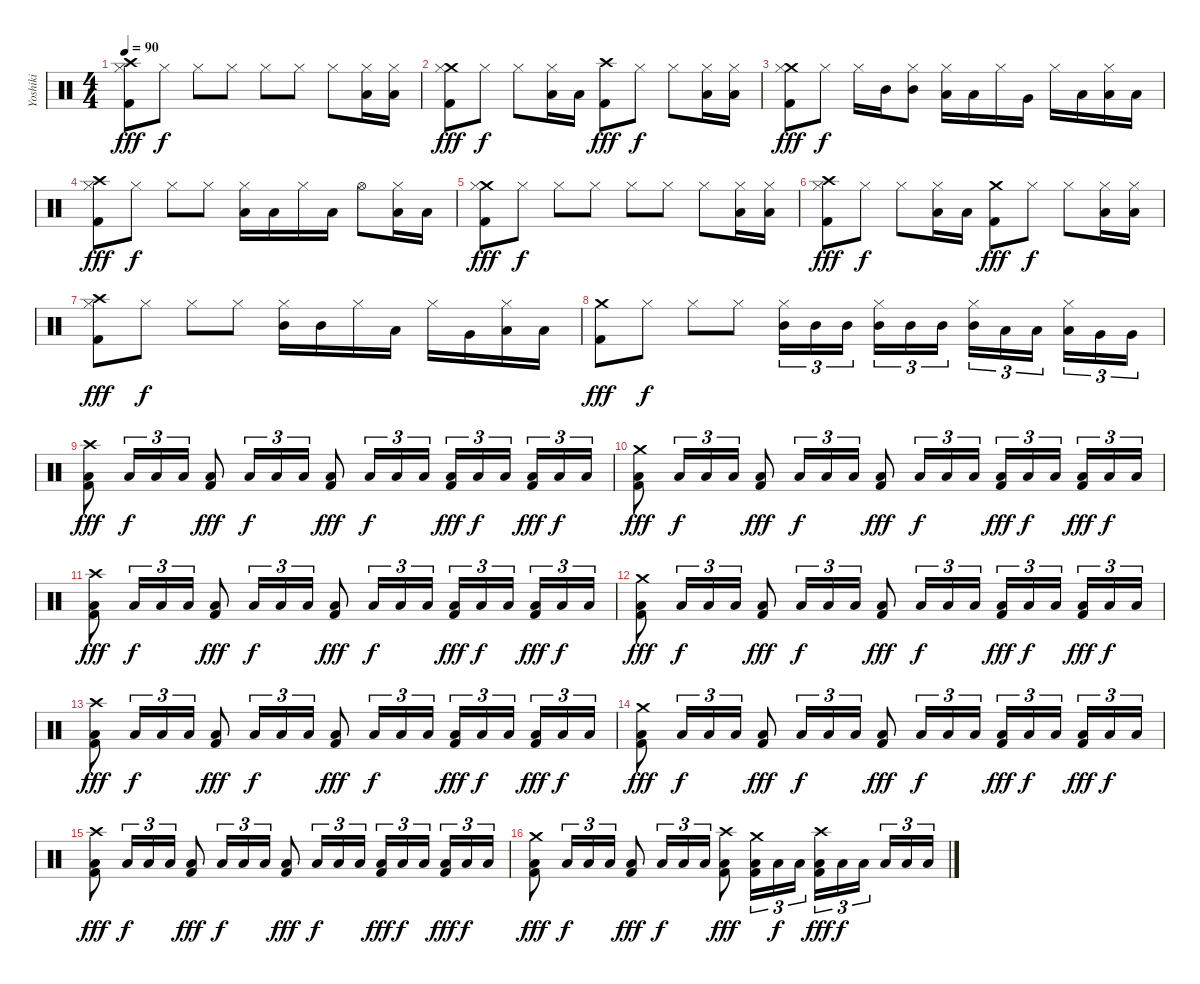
\track ("Yoshiki" "Yoshiki") {instrument percussion}
\staff {score}
\articulation defaults
\ts (4 4)
\tempo 90
\clef neutral
\ks c
("Crash high (hit)" "Hi-Hat (closed)" "Kick (hit) 2").8{dy fff} "Hi-Hat (closed)".8{dy f} "Hi-Hat (closed)".8 "Hi-Hat (closed)".8 "Hi-Hat (closed)".8 "Hi-Hat (closed)".8 "Hi-Hat (closed)".8 ("Hi-Hat (closed)" "Low Floor Tom (hit)").16 ("Hi-Hat (closed)" "Low Floor Tom (hit)").16 |
("Crash medium (hit)" "Hi-Hat (closed)" "Kick (hit) 2").8{dy fff} "Hi-Hat (closed)".8{dy f} "Hi-Hat (closed)".8 ("Hi-Hat (closed)" "Low Floor Tom (hit)").16 "Low Floor Tom (hit)".16 ("Crash high (hit)" "Kick (hit) 2").8{dy fff} "Hi-Hat (closed)".8{dy f} "Hi-Hat (closed)".8 ("Hi-Hat (closed)" "Low Floor Tom (hit)").16 ("Hi-Hat (closed)" "Low Floor Tom (hit)").16 |
("Crash medium (hit)" "Hi-Hat (closed)" "Kick (hit) 2").8{dy fff} "Hi-Hat (closed)".8{dy f} "Hi-Hat (closed)".16 "Mid Tom (hit)".16 ("Hi-Hat (closed)" "Mid Tom (hit)").8 ("Hi-Hat (closed)" "Low Tom (hit)").16 "Low Tom (hit)".16 "Hi-Hat (closed)".16 "Very Low Tom (hit)".16 "Hi-Hat (closed)".16 "Low Floor Tom (hit)".16 ("Hi-Hat (closed)" "Low Floor Tom (hit)").16 "Low Floor Tom (hit)".16 |
("Crash high (hit)" "Hi-Hat (closed)" "Kick (hit) 2").8{dy fff} "Hi-Hat (closed)".8{dy f} "Hi-Hat (closed)".8 "Hi-Hat (closed)".8 ("Hi-Hat (closed)" "Low Floor Tom (hit)").16 "Low Floor Tom (hit)".16 "Hi-Hat (closed)".16 "Low Floor Tom (hit)".16 "Hi-Hat (open)".8 ("Hi-Hat (closed)" "Low Floor Tom (hit)").16 "Low Floor Tom (hit)".16 |
("Crash medium (hit)" "Hi-Hat (closed)" "Kick (hit) 2").8{dy fff} "Hi-Hat (closed)".8{dy f} "Hi-Hat (closed)".8 "Hi-Hat (closed)".8 "Hi-Hat (closed)".8 "Hi-Hat (closed)".8 "Hi-Hat (closed)".8 ("Hi-Hat (closed)" "Low Floor Tom (hit)").16 ("Hi-Hat (closed)" "Low Floor Tom (hit)").16 |
("Crash high (hit)" "Hi-Hat (closed)" "Kick (hit) 2").8{dy fff} "Hi-Hat (closed)".8{dy f} "Hi-Hat (closed)".8 ("Hi-Hat (closed)" "Low Floor Tom (hit)").16 "Low Floor Tom (hit)".16 ("Crash medium (hit)" "Kick (hit) 2").8{dy fff} "Hi-Hat (closed)".8{dy f} "Hi-Hat (closed)".8 ("Hi-Hat (closed)" "Low Floor Tom (hit)").16 ("Hi-Hat (closed)" "Low Floor Tom (hit)").16 |
("Crash high (hit)" "Hi-Hat (closed)" "Kick (hit) 2").8{dy fff} "Hi-Hat (closed)".8{dy f} "Hi-Hat (closed)".8 "Hi-Hat (closed)".8 ("Hi-Hat (closed)" "Mid Tom (hit)").16 "Mid Tom (hit)".16 "Hi-Hat (closed)".16 "Low Tom (hit)".16 "Hi-Hat (closed)".16 "Very Low Tom (hit)".16 ("Hi-Hat (closed)" "Low Floor Tom (hit)").16 "Low Floor Tom (hit)".16 |
("Crash medium (hit)" "Kick (hit) 2").8{dy fff} "Hi-Hat (closed)".8{dy f} "Hi-Hat (closed)".8 "Hi-Hat (closed)".8 ("Hi-Hat (closed)" "Mid Tom (hit)").16{tu (3 2)} "Mid Tom (hit)".16{tu (3 2)} "Mid Tom (hit)".16{tu (3 2)} ("Hi-Hat (closed)" "Mid Tom (hit)").16{tu (3 2)} "Mid Tom (hit)".16{tu (3 2)} "Mid Tom (hit)".16{tu (3 2)} ("Hi-Hat (closed)" "Mid Tom (hit)").16{tu (3 2)} "Low Tom (hit)".16{tu (3 2)} "Low Tom (hit)".16{tu (3 2)} ("Hi-Hat (closed)" "Low Tom (hit)").16{tu (3 2)} "Very Low Tom (hit)".16{tu (3 2)} "Very Low Tom (hit)".16{tu (3 2)} |
("Crash high (hit)" "Low Floor Tom (hit)" "Kick (hit) 2").8{dy fff} "Low Floor Tom (hit)".16{tu (3 2) dy f} "Low Floor Tom (hit)".16{tu (3 2)} "Low Floor Tom (hit)".16{tu (3 2)} ("Low Floor Tom (hit)" "Kick (hit) 2").8{dy fff} "Low Floor Tom (hit)".16{tu (3 2) dy f} "Low Floor Tom (hit)".16{tu (3 2)} "Low Floor Tom (hit)".16{tu (3 2)} ("Low Floor Tom (hit)" "Kick (hit) 2").8{dy fff} "Low Floor Tom (hit)".16{tu (3 2) dy f} "Low Floor Tom (hit)".16{tu (3 2)} "Low Floor Tom (hit)".16{tu (3 2)} ("Low Floor Tom (hit)" "Kick (hit) 2").16{tu (3 2) dy fff} "Low Floor Tom (hit)".16{tu (3 2) dy f} "Low Floor Tom (hit)".16{tu (3 2)} ("Low Floor Tom (hit)" "Kick (hit) 2").16{tu (3 2) dy fff} "Low Floor Tom (hit)".16{tu (3 2) dy f} "Low Floor Tom (hit)".16{tu (3 2)} |
("Crash medium (hit)" "Low Floor Tom (hit)" "Kick (hit) 2").8{dy fff} "Low Floor Tom (hit)".16{tu (3 2) dy f} "Low Floor Tom (hit)".16{tu (3 2)} "Low Floor Tom (hit)".16{tu (3 2)} ("Low Floor Tom (hit)" "Kick (hit) 2").8{dy fff} "Low Floor Tom (hit)".16{tu (3 2) dy f} "Low Floor Tom (hit)".16{tu (3 2)} "Low Floor Tom (hit)".16{tu (3 2)} ("Low Floor Tom (hit)" "Kick (hit) 2").8{dy fff} "Low Floor Tom (hit)".16{tu (3 2) dy f} "Low Floor Tom (hit)".16{tu (3 2)} "Low Floor Tom (hit)".16{tu (3 2)} ("Low Floor Tom (hit)" "Kick (hit) 2").16{tu (3 2) dy fff} "Low Floor Tom (hit)".16{tu (3 2) dy f} "Low Floor Tom (hit)".16{tu (3 2)} ("Low Floor Tom (hit)" "Kick (hit) 2").16{tu (3 2) dy fff} "Low Floor Tom (hit)".16{tu (3 2) dy f} "Low Floor Tom (hit)".16{tu (3 2)} |
("Crash high (hit)" "Low Floor Tom (hit)" "Kick (hit) 2").8{dy fff} "Low Floor Tom (hit)".16{tu (3 2) dy f} "Low Floor Tom (hit)".16{tu (3 2)} "Low Floor Tom (hit)".16{tu (3 2)} ("Low Floor Tom (hit)" "Kick (hit) 2").8{dy fff} "Low Floor Tom (hit)".16{tu (3 2) dy f} "Low Floor Tom (hit)".16{tu (3 2)} "Low Floor Tom (hit)".16{tu (3 2)} ("Low Floor Tom (hit)" "Kick (hit) 2").8{dy fff} "Low Floor Tom (hit)".16{tu (3 2) dy f} "Low Floor Tom (hit)".16{tu (3 2)} "Low Floor Tom (hit)".16{tu (3 2)} ("Low Floor Tom (hit)" "Kick (hit) 2").16{tu (3 2) dy fff} "Low Floor Tom (hit)".16{tu (3 2) dy f} "Low Floor Tom (hit)".16{tu (3 2)} ("Low Floor Tom (hit)" "Kick (hit) 2").16{tu (3 2) dy fff} "Low Floor Tom (hit)".16{tu (3 2) dy f} "Low Floor Tom (hit)".16{tu (3 2)} |
("Crash medium (hit)" "Low Floor Tom (hit)" "Kick (hit) 2").8{dy fff} "Low Floor Tom (hit)".16{tu (3 2) dy f} "Low Floor Tom (hit)".16{tu (3 2)} "Low Floor Tom (hit)".16{tu (3 2)} ("Low Floor Tom (hit)" "Kick (hit) 2").8{dy fff} "Low Floor Tom (hit)".16{tu (3 2) dy f} "Low Floor Tom (hit)".16{tu (3 2)} "Low Floor Tom (hit)".16{tu (3 2)} ("Low Floor Tom (hit)" "Kick (hit) 2").8{dy fff} "Low Floor Tom (hit)".16{tu (3 2) dy f} "Low Floor Tom (hit)".16{tu (3 2)} "Low Floor Tom (hit)".16{tu (3 2)} ("Low Floor Tom (hit)" "Kick (hit) 2").16{tu (3 2) dy fff} "Low Floor Tom (hit)".16{tu (3 2) dy f} "Low Floor Tom (hit)".16{tu (3 2)} ("Low Floor Tom (hit)" "Kick (hit) 2").16{tu (3 2) dy fff} "Low Floor Tom (hit)".16{tu (3 2) dy f} "Low Floor Tom (hit)".16{tu (3 2)} |
("Crash high (hit)" "Low Floor Tom (hit)" "Kick (hit) 2").8{dy fff} "Low Floor Tom (hit)".16{tu (3 2) dy f} "Low Floor Tom (hit)".16{tu (3 2)} "Low Floor Tom (hit)".16{tu (3 2)} ("Low Floor Tom (hit)" "Kick (hit) 2").8{dy fff} "Low Floor Tom (hit)".16{tu (3 2) dy f} "Low Floor Tom (hit)".16{tu (3 2)} "Low Floor Tom (hit)".16{tu (3 2)} ("Low Floor Tom (hit)" "Kick (hit) 2").8{dy fff} "Low Floor Tom (hit)".16{tu (3 2) dy f} "Low Floor Tom (hit)".16{tu (3 2)} "Low Floor Tom (hit)".16{tu (3 2)} ("Low Floor Tom (hit)" "Kick (hit) 2").16{tu (3 2) dy fff} "Low Floor Tom (hit)".16{tu (3 2) dy f} "Low Floor Tom (hit)".16{tu (3 2)} ("Low Floor Tom (hit)" "Kick (hit) 2").16{tu (3 2) dy fff} "Low Floor Tom (hit)".16{tu (3 2) dy f} "Low Floor Tom (hit)".16{tu (3 2)} |
("Crash medium (hit)" "Low Floor Tom (hit)" "Kick (hit) 2").8{dy fff} "Low Floor Tom (hit)".16{tu (3 2) dy f} "Low Floor Tom (hit)".16{tu (3 2)} "Low Floor Tom (hit)".16{tu (3 2)} ("Low Floor Tom (hit)" "Kick (hit) 2").8{dy fff} "Low Floor Tom (hit)".16{tu (3 2) dy f} "Low Floor Tom (hit)".16{tu (3 2)} "Low Floor Tom (hit)".16{tu (3 2)} ("Low Floor Tom (hit)" "Kick (hit) 2").8{dy fff} "Low Floor Tom (hit)".16{tu (3 2) dy f} "Low Floor Tom (hit)".16{tu (3 2)} "Low Floor Tom (hit)".16{tu (3 2)} ("Low Floor Tom (hit)" "Kick (hit) 2").16{tu (3 2) dy fff} "Low Floor Tom (hit)".16{tu (3 2) dy f} "Low Floor Tom (hit)".16{tu (3 2)} ("Low Floor Tom (hit)" "Kick (hit) 2").16{tu (3 2) dy fff} "Low Floor Tom (hit)".16{tu (3 2) dy f} "Low Floor Tom (hit)".16{tu (3 2)} |
("Crash high (hit)" "Low Floor Tom (hit)" "Kick (hit) 2").8{dy fff} "Low Floor Tom (hit)".16{tu (3 2) dy f} "Low Floor Tom (hit)".16{tu (3 2)} "Low Floor Tom (hit)".16{tu (3 2)} ("Low Floor Tom (hit)" "Kick (hit) 2").8{dy fff} "Low Floor Tom (hit)".16{tu (3 2) dy f} "Low Floor Tom (hit)".16{tu (3 2)} "Low Floor Tom (hit)".16{tu (3 2)} ("Low Floor Tom (hit)" "Kick (hit) 2").8{dy fff} "Low Floor Tom (hit)".16{tu (3 2) dy f} "Low Floor Tom (hit)".16{tu (3 2)} "Low Floor Tom (hit)".16{tu (3 2)} ("Low Floor Tom (hit)" "Kick (hit) 2").16{tu (3 2) dy fff} "Low Floor Tom (hit)".16{tu (3 2) dy f} "Low Floor Tom (hit)".16{tu (3 2)} ("Low Floor Tom (hit)" "Kick (hit) 2").16{tu (3 2) dy fff} "Low Floor Tom (hit)".16{tu (3 2) dy f} "Low Floor Tom (hit)".16{tu (3 2)} |
("Crash medium (hit)" "Low Floor Tom (hit)" "Kick (hit) 2").8{dy fff} "Low Floor Tom (hit)".16{tu (3 2) dy f} "Low Floor Tom (hit)".16{tu (3 2)} "Low Floor Tom (hit)".16{tu (3 2)} ("Low Floor Tom (hit)" "Kick (hit) 2").8{dy fff} "Low Floor Tom (hit)".16{tu (3 2) dy f} "Low Floor Tom (hit)".16{tu (3 2)} "Low Floor Tom (hit)".16{tu (3 2)} ("Crash high (hit)" "Low Floor Tom (hit)" "Kick (hit) 2").8{dy fff} ("Crash medium (hit)" "Low Floor Tom (hit)" "Kick (hit) 2").16{tu (3 2)} "Low Floor Tom (hit)".16{tu (3 2) dy f} "Low Floor Tom (hit)".16{tu (3 2)} ("Crash high (hit)" "Low Floor Tom (hit)" "Kick (hit) 2").16{tu (3 2) dy fff} "Low Floor Tom (hit)".16{tu (3 2) dy f} "Low Floor Tom (hit)".16{tu (3 2)} "Low Floor Tom (hit)".16{tu (3 2)} "Low Floor Tom (hit)".16{tu (3 2)} "Low Floor Tom (hit)".16{tu (3 2)}
